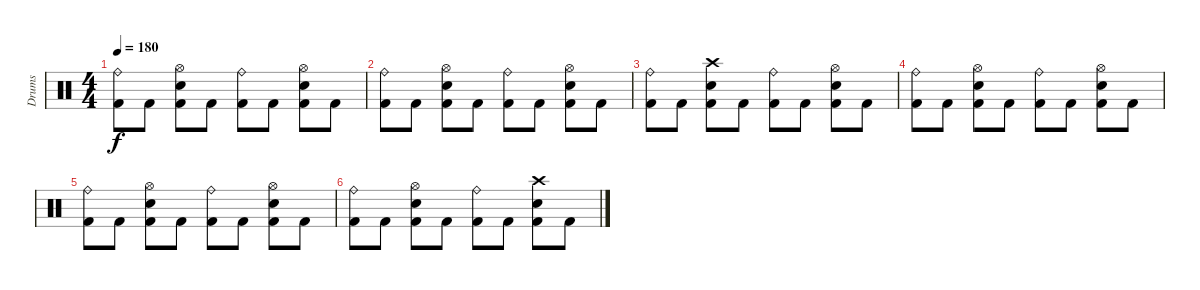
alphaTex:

\track ("Drums" "Drums") {instrument percussion}
\staff {score}
\articulation defaults
\ts (4 4)
\tempo 180
\clef neutral
\ks c
("Ride (bell)" "Kick (hit) 2").8{dy f} "Kick (hit) 2".8 ("Snare (hit) 2" "Hi-Hat (open)" "Kick (hit) 2").8 "Kick (hit) 2".8 ("Ride (bell)" "Kick (hit) 2").8 "Kick (hit) 2".8 ("Snare (hit) 2" "Hi-Hat (open)" "Kick (hit) 2").8 "Kick (hit) 2".8 |
("Ride (bell)" "Kick (hit) 2").8 "Kick (hit) 2".8 ("Snare (hit) 2" "Hi-Hat (open)" "Kick (hit) 2").8 "Kick (hit) 2".8 ("Ride (bell)" "Kick (hit) 2").8 "Kick (hit) 2".8 ("Snare (hit) 2" "Hi-Hat (open)" "Kick (hit) 2").8 "Kick (hit) 2".8 |
("Ride (bell)" "Kick (hit) 2").8 "Kick (hit) 2".8 ("Snare (hit) 2" "Crash high (hit)" "Kick (hit) 2").8 "Kick (hit) 2".8 ("Ride (bell)" "Kick (hit) 2").8 "Kick (hit) 2".8 ("Snare (hit) 2" "Hi-Hat (open)" "Kick (hit) 2").8 "Kick (hit) 2".8 |
("Ride (bell)" "Kick (hit) 2").8 "Kick (hit) 2".8 ("Snare (hit) 2" "Hi-Hat (open)" "Kick (hit) 2").8 "Kick (hit) 2".8 ("Ride (bell)" "Kick (hit) 2").8 "Kick (hit) 2".8 ("Snare (hit) 2" "Hi-Hat (open)" "Kick (hit) 2").8 "Kick (hit) 2".8 |
("Ride (bell)" "Kick (hit) 2").8 "Kick (hit) 2".8 ("Snare (hit) 2" "Hi-Hat (open)" "Kick (hit) 2").8 "Kick (hit) 2".8 ("Ride (bell)" "Kick (hit) 2").8 "Kick (hit) 2".8 ("Snare (hit) 2" "Hi-Hat (open)" "Kick (hit) 2").8 "Kick (hit) 2".8 |
("Ride (bell)" "Kick (hit) 2").8 "Kick (hit) 2".8 ("Snare (hit) 2" "Hi-Hat (open)" "Kick (hit) 2").8 "Kick (hit) 2".8 ("Ride (bell)" "Kick (hit) 2").8 "Kick (hit) 2".8 ("Snare (hit) 2" "Crash high (hit)" "Kick (hit) 2").8 "Kick (hit) 2".8
